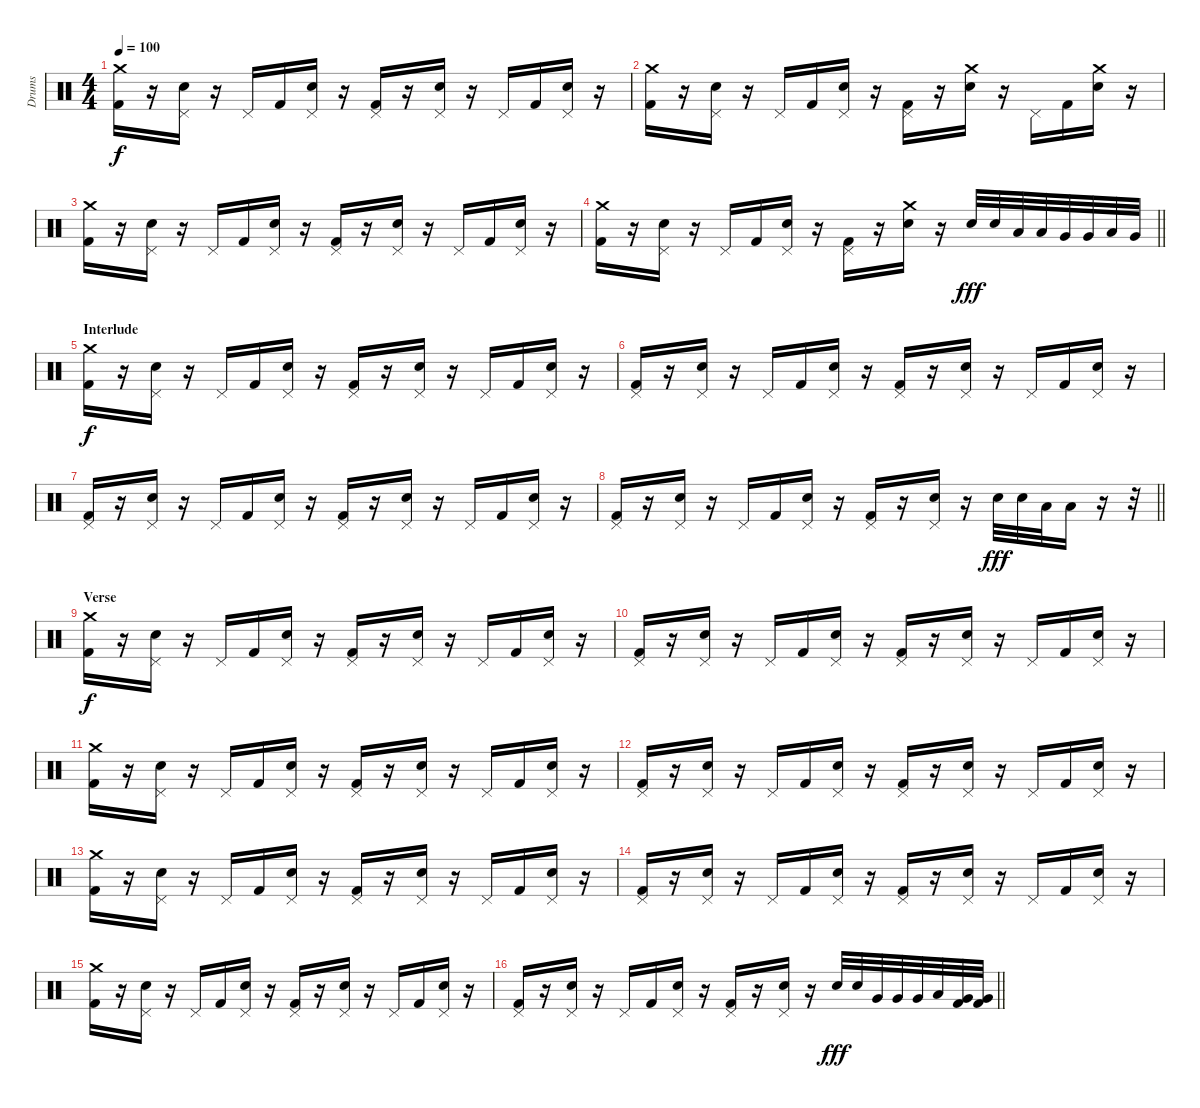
\track ("Drums" "Drums") {instrument percussion}
\staff {score}
\articulation defaults
\ts (4 4)
\tempo 100
\clef neutral
\ks c
("Crash medium (hit)" "Kick (hit) 2").16{dy f} r.16 ("Pedal Hi-Hat (hit)" "Electric Snare (hit)").16 r.16 "Pedal Hi-Hat (hit)".16 "Kick (hit) 2".16 ("Pedal Hi-Hat (hit)" "Electric Snare (hit)").16 r.16 ("Pedal Hi-Hat (hit)" "Kick (hit) 2").16 r.16 ("Pedal Hi-Hat (hit)" "Electric Snare (hit)").16 r.16 "Pedal Hi-Hat (hit)".16 "Kick (hit) 2".16 ("Pedal Hi-Hat (hit)" "Electric Snare (hit)").16 r.16 |
("Crash medium (hit)" "Kick (hit) 2").16 r.16 ("Pedal Hi-Hat (hit)" "Electric Snare (hit)").16 r.16 "Pedal Hi-Hat (hit)".16 "Kick (hit) 2".16 ("Pedal Hi-Hat (hit)" "Electric Snare (hit)").16 r.16 ("Pedal Hi-Hat (hit)" "Kick (hit) 2").16 r.16 ("Crash medium (hit)" "Electric Snare (hit)").16 r.16 "Pedal Hi-Hat (hit)".16 "Kick (hit) 2".16 ("Crash medium (hit)" "Electric Snare (hit)").16 r.16 |
("Crash medium (hit)" "Kick (hit) 2").16 r.16 ("Pedal Hi-Hat (hit)" "Electric Snare (hit)").16 r.16 "Pedal Hi-Hat (hit)".16 "Kick (hit) 2".16 ("Pedal Hi-Hat (hit)" "Electric Snare (hit)").16 r.16 ("Pedal Hi-Hat (hit)" "Kick (hit) 2").16 r.16 ("Pedal Hi-Hat (hit)" "Electric Snare (hit)").16 r.16 "Pedal Hi-Hat (hit)".16 "Kick (hit) 2".16 ("Pedal Hi-Hat (hit)" "Electric Snare (hit)").16 r.16 |
\barLineRight lightlight
("Crash medium (hit)" "Kick (hit) 2").16 r.16 ("Pedal Hi-Hat (hit)" "Electric Snare (hit)").16 r.16 "Pedal Hi-Hat (hit)".16 "Kick (hit) 2".16 ("Pedal Hi-Hat (hit)" "Electric Snare (hit)").16 r.16 ("Pedal Hi-Hat (hit)" "Kick (hit) 2").16 r.16 ("Crash medium (hit)" "Electric Snare (hit)").16 r.16 "Electric Snare (hit)".32{dy fff} "Electric Snare (hit)".32 "Low Tom (hit)".32 "Low Tom (hit)".32 "Very Low Tom (hit)".32 "Very Low Tom (hit)".32 "Low Tom (hit)".32 "Very Low Tom (hit)".32 |
\section ("" "Interlude")
("Crash medium (hit)" "Kick (hit) 2").16{dy f} r.16 ("Pedal Hi-Hat (hit)" "Electric Snare (hit)").16 r.16 "Pedal Hi-Hat (hit)".16 "Kick (hit) 2".16 ("Pedal Hi-Hat (hit)" "Electric Snare (hit)").16 r.16 ("Pedal Hi-Hat (hit)" "Kick (hit) 2").16 r.16 ("Pedal Hi-Hat (hit)" "Electric Snare (hit)").16 r.16 "Pedal Hi-Hat (hit)".16 "Kick (hit) 2".16 ("Pedal Hi-Hat (hit)" "Electric Snare (hit)").16 r.16 |
("Pedal Hi-Hat (hit)" "Kick (hit) 2").16 r.16 ("Pedal Hi-Hat (hit)" "Electric Snare (hit)").16 r.16 "Pedal Hi-Hat (hit)".16 "Kick (hit) 2".16 ("Pedal Hi-Hat (hit)" "Electric Snare (hit)").16 r.16 ("Pedal Hi-Hat (hit)" "Kick (hit) 2").16 r.16 ("Pedal Hi-Hat (hit)" "Electric Snare (hit)").16 r.16 "Pedal Hi-Hat (hit)".16 "Kick (hit) 2".16 ("Pedal Hi-Hat (hit)" "Electric Snare (hit)").16 r.16 |
("Pedal Hi-Hat (hit)" "Kick (hit) 2").16 r.16 ("Pedal Hi-Hat (hit)" "Electric Snare (hit)").16 r.16 "Pedal Hi-Hat (hit)".16 "Kick (hit) 2".16 ("Pedal Hi-Hat (hit)" "Electric Snare (hit)").16 r.16 ("Pedal Hi-Hat (hit)" "Kick (hit) 2").16 r.16 ("Pedal Hi-Hat (hit)" "Electric Snare (hit)").16 r.16 "Pedal Hi-Hat (hit)".16 "Kick (hit) 2".16 ("Pedal Hi-Hat (hit)" "Electric Snare (hit)").16 r.16 |
\barLineRight lightlight
("Pedal Hi-Hat (hit)" "Kick (hit) 2").16 r.16 ("Pedal Hi-Hat (hit)" "Electric Snare (hit)").16 r.16 "Pedal Hi-Hat (hit)".16 "Kick (hit) 2".16 ("Pedal Hi-Hat (hit)" "Electric Snare (hit)").16 r.16 ("Pedal Hi-Hat (hit)" "Kick (hit) 2").16 r.16 ("Pedal Hi-Hat (hit)" "Electric Snare (hit)").16 r.16 "Electric Snare (hit)".32{dy fff} "Electric Snare (hit)".32 "Low Tom (hit)".32 "Low Floor Tom (hit)".16 r.16 r.32 |
\section ("" "Verse")
("Crash medium (hit)" "Kick (hit) 2").16{dy f} r.16 ("Pedal Hi-Hat (hit)" "Electric Snare (hit)").16 r.16 "Pedal Hi-Hat (hit)".16 "Kick (hit) 2".16 ("Pedal Hi-Hat (hit)" "Electric Snare (hit)").16 r.16 ("Pedal Hi-Hat (hit)" "Kick (hit) 2").16 r.16 ("Pedal Hi-Hat (hit)" "Electric Snare (hit)").16 r.16 "Pedal Hi-Hat (hit)".16 "Kick (hit) 2".16 ("Pedal Hi-Hat (hit)" "Electric Snare (hit)").16 r.16 |
("Pedal Hi-Hat (hit)" "Kick (hit) 2").16 r.16 ("Pedal Hi-Hat (hit)" "Electric Snare (hit)").16 r.16 "Pedal Hi-Hat (hit)".16 "Kick (hit) 2".16 ("Pedal Hi-Hat (hit)" "Electric Snare (hit)").16 r.16 ("Pedal Hi-Hat (hit)" "Kick (hit) 2").16 r.16 ("Pedal Hi-Hat (hit)" "Electric Snare (hit)").16 r.16 "Pedal Hi-Hat (hit)".16 "Kick (hit) 2".16 ("Pedal Hi-Hat (hit)" "Electric Snare (hit)").16 r.16 |
("Crash medium (hit)" "Kick (hit) 2").16 r.16 ("Pedal Hi-Hat (hit)" "Electric Snare (hit)").16 r.16 "Pedal Hi-Hat (hit)".16 "Kick (hit) 2".16 ("Pedal Hi-Hat (hit)" "Electric Snare (hit)").16 r.16 ("Pedal Hi-Hat (hit)" "Kick (hit) 2").16 r.16 ("Pedal Hi-Hat (hit)" "Electric Snare (hit)").16 r.16 "Pedal Hi-Hat (hit)".16 "Kick (hit) 2".16 ("Pedal Hi-Hat (hit)" "Electric Snare (hit)").16 r.16 |
("Pedal Hi-Hat (hit)" "Kick (hit) 2").16 r.16 ("Pedal Hi-Hat (hit)" "Electric Snare (hit)").16 r.16 "Pedal Hi-Hat (hit)".16 "Kick (hit) 2".16 ("Pedal Hi-Hat (hit)" "Electric Snare (hit)").16 r.16 ("Pedal Hi-Hat (hit)" "Kick (hit) 2").16 r.16 ("Pedal Hi-Hat (hit)" "Electric Snare (hit)").16 r.16 "Pedal Hi-Hat (hit)".16 "Kick (hit) 2".16 ("Pedal Hi-Hat (hit)" "Electric Snare (hit)").16 r.16 |
("Crash medium (hit)" "Kick (hit) 2").16 r.16 ("Pedal Hi-Hat (hit)" "Electric Snare (hit)").16 r.16 "Pedal Hi-Hat (hit)".16 "Kick (hit) 2".16 ("Pedal Hi-Hat (hit)" "Electric Snare (hit)").16 r.16 ("Pedal Hi-Hat (hit)" "Kick (hit) 2").16 r.16 ("Pedal Hi-Hat (hit)" "Electric Snare (hit)").16 r.16 "Pedal Hi-Hat (hit)".16 "Kick (hit) 2".16 ("Pedal Hi-Hat (hit)" "Electric Snare (hit)").16 r.16 |
("Pedal Hi-Hat (hit)" "Kick (hit) 2").16 r.16 ("Pedal Hi-Hat (hit)" "Electric Snare (hit)").16 r.16 "Pedal Hi-Hat (hit)".16 "Kick (hit) 2".16 ("Pedal Hi-Hat (hit)" "Electric Snare (hit)").16 r.16 ("Pedal Hi-Hat (hit)" "Kick (hit) 2").16 r.16 ("Pedal Hi-Hat (hit)" "Electric Snare (hit)").16 r.16 "Pedal Hi-Hat (hit)".16 "Kick (hit) 2".16 ("Pedal Hi-Hat (hit)" "Electric Snare (hit)").16 r.16 |
("Crash medium (hit)" "Kick (hit) 2").16 r.16 ("Pedal Hi-Hat (hit)" "Electric Snare (hit)").16 r.16 "Pedal Hi-Hat (hit)".16 "Kick (hit) 2".16 ("Pedal Hi-Hat (hit)" "Electric Snare (hit)").16 r.16 ("Pedal Hi-Hat (hit)" "Kick (hit) 2").16 r.16 ("Pedal Hi-Hat (hit)" "Electric Snare (hit)").16 r.16 "Pedal Hi-Hat (hit)".16 "Kick (hit) 2".16 ("Pedal Hi-Hat (hit)" "Electric Snare (hit)").16 r.16 |
\barLineRight lightlight
("Pedal Hi-Hat (hit)" "Kick (hit) 2").16 r.16 ("Pedal Hi-Hat (hit)" "Electric Snare (hit)").16 r.16 "Pedal Hi-Hat (hit)".16 "Kick (hit) 2".16 ("Pedal Hi-Hat (hit)" "Electric Snare (hit)").16 r.16 ("Pedal Hi-Hat (hit)" "Kick (hit) 2").16 r.16 ("Pedal Hi-Hat (hit)" "Electric Snare (hit)").16 r.16 "Electric Snare (hit)".32{dy fff} "Electric Snare (hit)".32 "Very Low Tom (hit)".32 "Very Low Tom (hit)".32 "Very Low Tom (hit)".32 "Low Tom (hit)".32 ("Very Low Tom (hit)" "Kick (hit) 2").32 ("Very Low Tom (hit)" "Kick (hit) 2").32
